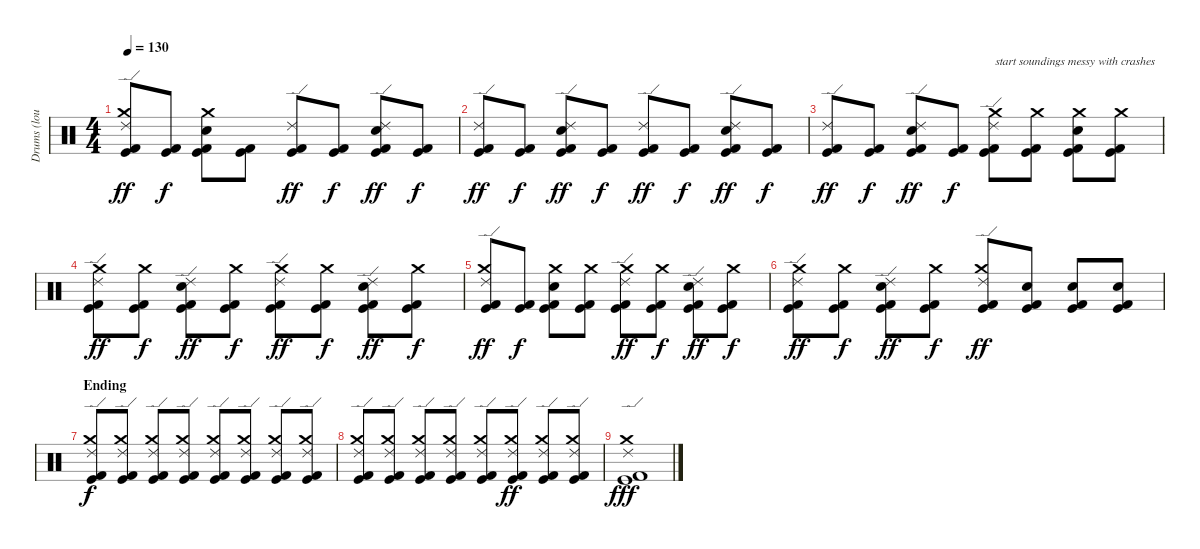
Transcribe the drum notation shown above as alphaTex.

\track ("Drums (loud!)" "Drums (lou") {instrument percussion}
\staff {score}
\articulation defaults
\ts (4 4)
\tempo 130
\clef neutral
\ks c
("Ride (edge) 2" "Crash medium (hit)" "Kick (hit) 2" "Kick (hit)").8{dy ff} ("Kick (hit) 2" "Kick (hit)").8{dy f} ("Crash medium (hit)" "Snare (hit) 2" "Kick (hit) 2" "Kick (hit)").8 ("Kick (hit) 2" "Kick (hit)").8 ("Ride (edge) 2" "Kick (hit) 2" "Kick (hit)").8{dy ff} ("Kick (hit) 2" "Kick (hit)").8{dy f} ("Ride (edge) 2" "Snare (hit) 2" "Kick (hit) 2" "Kick (hit)").8{dy ff} ("Kick (hit) 2" "Kick (hit)").8{dy f} |
("Ride (edge) 2" "Kick (hit) 2" "Kick (hit)").8{dy ff} ("Kick (hit) 2" "Kick (hit)").8{dy f} ("Ride (edge) 2" "Snare (hit) 2" "Kick (hit) 2" "Kick (hit)").8{dy ff} ("Kick (hit) 2" "Kick (hit)").8{dy f} ("Ride (edge) 2" "Kick (hit) 2" "Kick (hit)").8{dy ff} ("Kick (hit) 2" "Kick (hit)").8{dy f} ("Ride (edge) 2" "Snare (hit) 2" "Kick (hit)" "Kick (hit) 2").8{dy ff} ("Kick (hit) 2" "Kick (hit)").8{dy f} |
("Ride (edge) 2" "Kick (hit) 2" "Kick (hit)").8{dy ff} ("Kick (hit) 2" "Kick (hit)").8{dy f} ("Ride (edge) 2" "Snare (hit) 2" "Kick (hit) 2" "Kick (hit)").8{dy ff} ("Kick (hit) 2" "Kick (hit)").8{dy f} ("Ride (edge) 2" "Crash medium (hit)" "Kick (hit) 2" "Kick (hit)").8{txt "start soundings messy with crashes"} ("Crash medium (hit)" "Kick (hit) 2" "Kick (hit)").8 ("Crash medium (hit)" "Snare (hit) 2" "Kick (hit)" "Kick (hit) 2").8 ("Crash medium (hit)" "Kick (hit) 2" "Kick (hit)").8 |
("Ride (edge) 2" "Crash medium (hit)" "Kick (hit) 2" "Kick (hit)").8{dy ff} ("Crash medium (hit)" "Kick (hit) 2" "Kick (hit)").8{dy f} ("Ride (edge) 2" "Snare (hit) 2" "Kick (hit) 2" "Kick (hit)").8{dy ff} ("Crash medium (hit)" "Kick (hit) 2" "Kick (hit)").8{dy f} ("Ride (edge) 2" "Crash medium (hit)" "Kick (hit) 2" "Kick (hit)").8{dy ff} ("Crash medium (hit)" "Kick (hit) 2" "Kick (hit)").8{dy f} ("Ride (edge) 2" "Snare (hit) 2" "Kick (hit)" "Kick (hit) 2").8{dy ff} ("Crash medium (hit)" "Kick (hit) 2" "Kick (hit)").8{dy f} |
("Ride (edge) 2" "Crash medium (hit)" "Kick (hit) 2" "Kick (hit)").8{dy ff} ("Kick (hit) 2" "Kick (hit)").8{dy f} ("Crash medium (hit)" "Snare (hit) 2" "Kick (hit) 2" "Kick (hit)").8 ("Crash medium (hit)" "Kick (hit) 2" "Kick (hit)").8 ("Ride (edge) 2" "Crash medium (hit)" "Kick (hit) 2" "Kick (hit)").8{dy ff} ("Crash medium (hit)" "Kick (hit) 2" "Kick (hit)").8{dy f} ("Ride (edge) 2" "Snare (hit) 2" "Kick (hit) 2" "Kick (hit)").8{dy ff} ("Crash medium (hit)" "Kick (hit) 2" "Kick (hit)").8{dy f} |
("Ride (edge) 2" "Crash medium (hit)" "Kick (hit) 2" "Kick (hit)").8{dy ff} ("Crash medium (hit)" "Kick (hit) 2" "Kick (hit)").8{dy f} ("Ride (edge) 2" "Snare (hit) 2" "Kick (hit) 2" "Kick (hit)").8{dy ff} ("Crash medium (hit)" "Kick (hit) 2" "Kick (hit)").8{dy f} ("Ride (edge) 2" "Crash medium (hit)" "Kick (hit) 2" "Kick (hit)").8{dy ff} ("Snare (hit) 2" "Kick (hit) 2" "Kick (hit)").8 ("Snare (hit) 2" "Kick (hit)" "Kick (hit) 2").8 ("Snare (hit) 2" "Kick (hit) 2" "Kick (hit)").8 |
\section ("" "Ending")
("Ride (edge) 2" "Crash medium (hit)" "Kick (hit)" "Kick (hit) 2").8{dy f} ("Ride (edge) 2" "Crash medium (hit)" "Kick (hit)" "Kick (hit) 2").8 ("Ride (edge) 2" "Crash medium (hit)" "Kick (hit)" "Kick (hit) 2").8 ("Ride (edge) 2" "Crash medium (hit)" "Kick (hit)" "Kick (hit) 2").8 ("Ride (edge) 2" "Crash medium (hit)" "Kick (hit)" "Kick (hit) 2").8 ("Ride (edge) 2" "Crash medium (hit)" "Kick (hit)" "Kick (hit) 2").8 ("Ride (edge) 2" "Crash medium (hit)" "Kick (hit)" "Kick (hit) 2").8 ("Ride (edge) 2" "Crash medium (hit)" "Kick (hit)" "Kick (hit) 2").8 |
("Ride (edge) 2" "Crash medium (hit)" "Kick (hit)" "Kick (hit) 2").8 ("Ride (edge) 2" "Crash medium (hit)" "Kick (hit)" "Kick (hit) 2").8 ("Ride (edge) 2" "Crash medium (hit)" "Kick (hit)" "Kick (hit) 2").8 ("Ride (edge) 2" "Crash medium (hit)" "Kick (hit)" "Kick (hit) 2").8 ("Ride (edge) 2" "Crash medium (hit)" "Kick (hit)" "Kick (hit) 2").8 ("Ride (edge) 2" "Crash medium (hit)" "Kick (hit)" "Kick (hit) 2").8{dy ff} ("Ride (edge) 2" "Crash medium (hit)" "Kick (hit)" "Kick (hit) 2").8 ("Ride (edge) 2" "Crash medium (hit)" "Kick (hit)" "Kick (hit) 2").8 |
("Ride (edge) 2" "Crash medium (hit)" "Kick (hit)" "Kick (hit) 2").1{dy fff}
